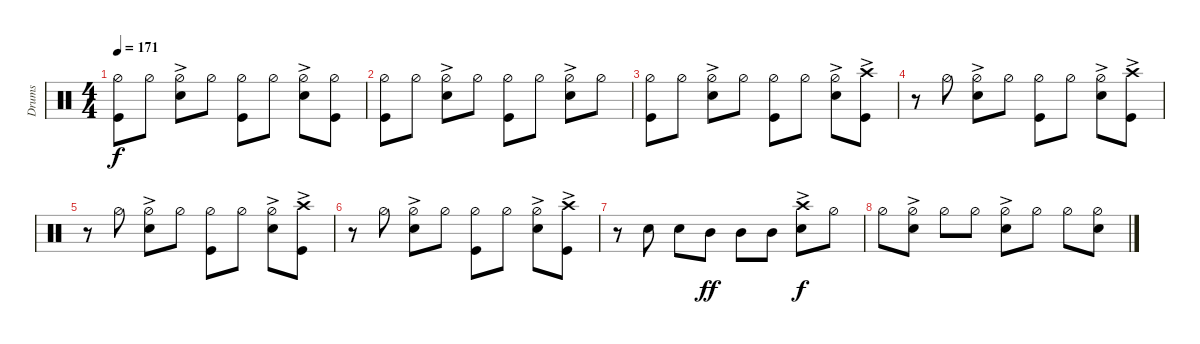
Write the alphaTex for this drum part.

\track ("Drums" "Drums") {instrument percussion}
\staff {score}
\articulation defaults
\ts (4 4)
\tempo 171
\clef neutral
\ks c
("Hi-Hat (half)" "Kick (hit)").8{dy f} "Hi-Hat (half)".8 ("Hi-Hat (half)"{ac} "Snare (hit) 2").8 "Hi-Hat (half)".8 ("Hi-Hat (half)" "Kick (hit)").8 "Hi-Hat (half)".8 ("Hi-Hat (half)"{ac} "Snare (hit) 2").8 ("Hi-Hat (half)" "Kick (hit)").8 |
("Hi-Hat (half)" "Kick (hit)").8 "Hi-Hat (half)".8 ("Hi-Hat (half)"{ac} "Snare (hit) 2").8 "Hi-Hat (half)".8 ("Hi-Hat (half)" "Kick (hit)").8 "Hi-Hat (half)".8 ("Hi-Hat (half)"{ac} "Snare (hit) 2").8 "Hi-Hat (half)".8 |
("Hi-Hat (half)" "Kick (hit)").8 "Hi-Hat (half)".8 ("Hi-Hat (half)"{ac} "Snare (hit) 2").8 "Hi-Hat (half)".8 ("Hi-Hat (half)" "Kick (hit)").8 "Hi-Hat (half)".8 ("Hi-Hat (half)"{ac} "Snare (hit) 2").8 ("Kick (hit)" "Crash high (hit)"{ac}).8 |
r.8 "Hi-Hat (half)".8 ("Hi-Hat (half)"{ac} "Snare (hit) 2").8 "Hi-Hat (half)".8 ("Hi-Hat (half)" "Kick (hit)").8 "Hi-Hat (half)".8 ("Hi-Hat (half)"{ac} "Snare (hit) 2").8 ("Kick (hit)" "Crash high (hit)"{ac}).8 |
r.8 "Hi-Hat (half)".8 ("Hi-Hat (half)"{ac} "Snare (hit) 2").8 "Hi-Hat (half)".8 ("Hi-Hat (half)" "Kick (hit)").8 "Hi-Hat (half)".8 ("Hi-Hat (half)"{ac} "Snare (hit) 2").8 ("Kick (hit)" "Crash high (hit)"{ac}).8 |
r.8 "Hi-Hat (half)".8 ("Hi-Hat (half)"{ac} "Snare (hit) 2").8 "Hi-Hat (half)".8 ("Hi-Hat (half)" "Kick (hit)").8 "Hi-Hat (half)".8 ("Hi-Hat (half)"{ac} "Snare (hit) 2").8 ("Kick (hit)" "Crash high (hit)"{ac}).8 |
r.8 "Snare (hit) 2".8 "Snare (hit) 2".8 "Mid Tom (hit)".8{dy ff} "Mid Tom (hit)".8 "Mid Tom (hit)".8 ("Crash high (hit)"{ac} "Snare (hit) 2").8{dy f} "Hi-Hat (half)".8 |
"Hi-Hat (half)".8 ("Hi-Hat (half)"{ac} "Snare (hit) 2").8 "Hi-Hat (half)".8 "Hi-Hat (half)".8 ("Hi-Hat (half)"{ac} "Snare (hit) 2").8 "Hi-Hat (half)".8 "Hi-Hat (half)".8 ("Snare (hit) 2" "Hi-Hat (half)").8
